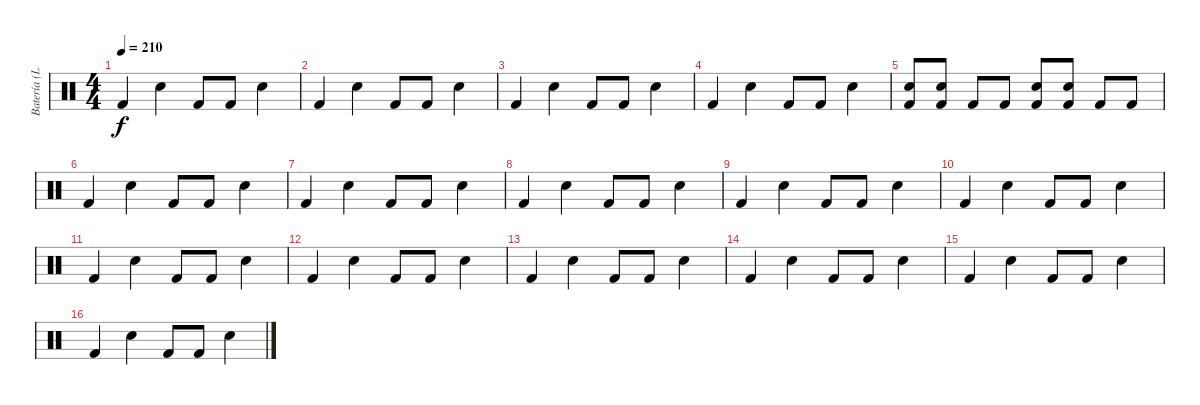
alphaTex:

\track ("Batería (Leo)" "Batería (L") {instrument percussion}
\staff {score}
\articulation defaults
\ts (4 4)
\tempo 210
\clef neutral
\ks c "Kick (hit) 2".4{dy f} "Snare (hit) 2".4 "Kick (hit) 2".8 "Kick (hit) 2".8 "Snare (hit) 2".4
|
"Kick (hit) 2".4 "Snare (hit) 2".4 "Kick (hit) 2".8 "Kick (hit) 2".8 "Snare (hit) 2".4 |
"Kick (hit) 2".4 "Snare (hit) 2".4 "Kick (hit) 2".8 "Kick (hit) 2".8 "Snare (hit) 2".4 |
"Kick (hit) 2".4 "Snare (hit) 2".4 "Kick (hit) 2".8 "Kick (hit) 2".8 "Snare (hit) 2".4 |
("Kick (hit) 2" "Snare (hit) 2").8 ("Kick (hit) 2" "Snare (hit) 2").8 "Kick (hit) 2".8 "Kick (hit) 2".8 ("Kick (hit) 2" "Snare (hit) 2").8 ("Kick (hit) 2" "Snare (hit) 2").8 "Kick (hit) 2".8 "Kick (hit) 2".8 |
"Kick (hit) 2".4 "Snare (hit) 2".4 "Kick (hit) 2".8 "Kick (hit) 2".8 "Snare (hit) 2".4 |
"Kick (hit) 2".4 "Snare (hit) 2".4 "Kick (hit) 2".8 "Kick (hit) 2".8 "Snare (hit) 2".4 |
"Kick (hit) 2".4 "Snare (hit) 2".4 "Kick (hit) 2".8 "Kick (hit) 2".8 "Snare (hit) 2".4 |
"Kick (hit) 2".4 "Snare (hit) 2".4 "Kick (hit) 2".8 "Kick (hit) 2".8 "Snare (hit) 2".4 |
"Kick (hit) 2".4 "Snare (hit) 2".4 "Kick (hit) 2".8 "Kick (hit) 2".8 "Snare (hit) 2".4 |
"Kick (hit) 2".4 "Snare (hit) 2".4 "Kick (hit) 2".8 "Kick (hit) 2".8 "Snare (hit) 2".4 |
"Kick (hit) 2".4 "Snare (hit) 2".4 "Kick (hit) 2".8 "Kick (hit) 2".8 "Snare (hit) 2".4 |
"Kick (hit) 2".4 "Snare (hit) 2".4 "Kick (hit) 2".8 "Kick (hit) 2".8 "Snare (hit) 2".4 |
"Kick (hit) 2".4 "Snare (hit) 2".4 "Kick (hit) 2".8 "Kick (hit) 2".8 "Snare (hit) 2".4 |
"Kick (hit) 2".4 "Snare (hit) 2".4 "Kick (hit) 2".8 "Kick (hit) 2".8 "Snare (hit) 2".4 |
"Kick (hit) 2".4 "Snare (hit) 2".4 "Kick (hit) 2".8 "Kick (hit) 2".8 "Snare (hit) 2".4
